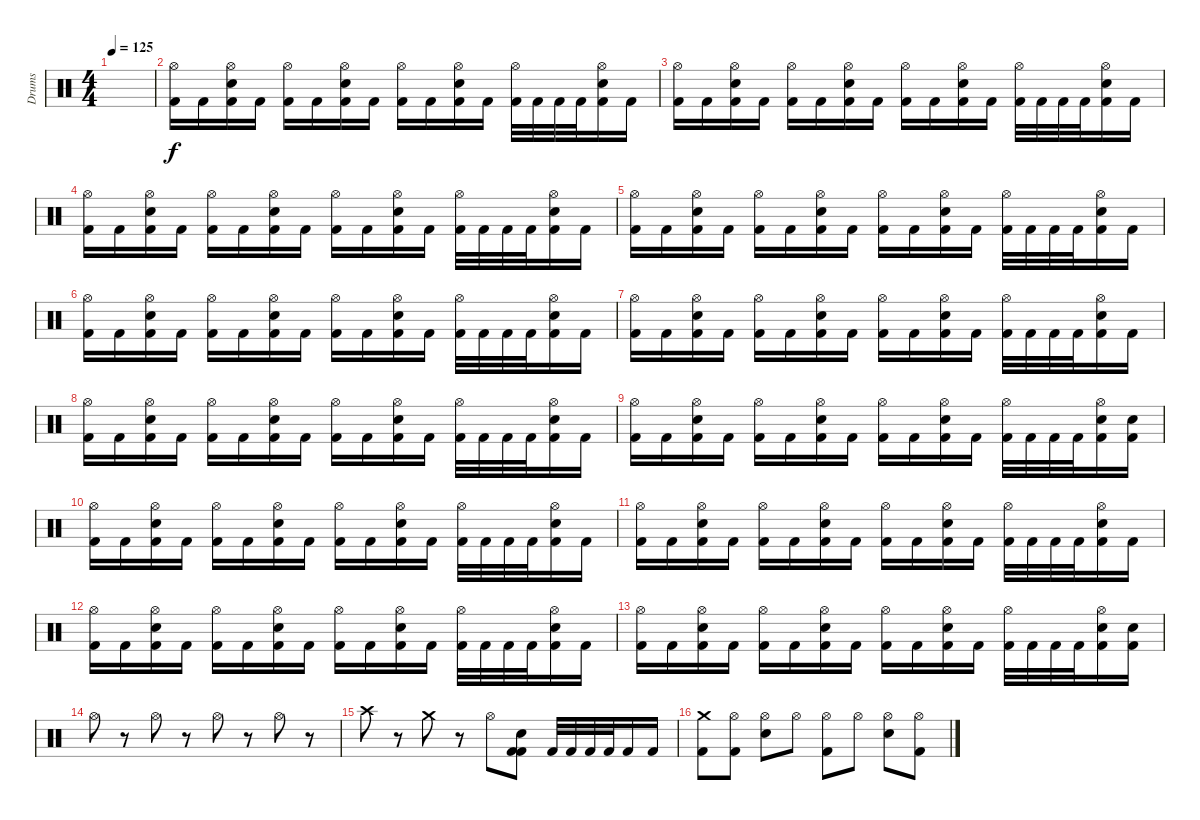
\track ("Drums" "Drums") {instrument percussion}
\staff {score}
\articulation defaults
\ts (4 4)
\tempo 125
\clef neutral
\ks c
|
("Hi-Hat (open)" "Kick (hit) 2").16 "Kick (hit) 2".16 ("Hi-Hat (open)" "Electric Snare (hit)" "Kick (hit) 2").16 "Kick (hit) 2".16 ("Hi-Hat (open)" "Kick (hit) 2").16 "Kick (hit) 2".16 ("Hi-Hat (open)" "Electric Snare (hit)" "Kick (hit) 2").16 "Kick (hit) 2".16 ("Hi-Hat (open)" "Kick (hit) 2").16 "Kick (hit) 2".16 ("Hi-Hat (open)" "Electric Snare (hit)" "Kick (hit) 2").16 "Kick (hit) 2".16 ("Hi-Hat (open)" "Kick (hit) 2").32 "Kick (hit) 2".32 "Kick (hit) 2".32 "Kick (hit) 2".32 ("Hi-Hat (open)" "Electric Snare (hit)" "Kick (hit) 2").16 "Kick (hit) 2".16 |
("Hi-Hat (open)" "Kick (hit) 2").16 "Kick (hit) 2".16 ("Hi-Hat (open)" "Electric Snare (hit)" "Kick (hit) 2").16 "Kick (hit) 2".16 ("Hi-Hat (open)" "Kick (hit) 2").16 "Kick (hit) 2".16 ("Hi-Hat (open)" "Electric Snare (hit)" "Kick (hit) 2").16 "Kick (hit) 2".16 ("Hi-Hat (open)" "Kick (hit) 2").16 "Kick (hit) 2".16 ("Hi-Hat (open)" "Electric Snare (hit)" "Kick (hit) 2").16 "Kick (hit) 2".16 ("Hi-Hat (open)" "Kick (hit) 2").32 "Kick (hit) 2".32 "Kick (hit) 2".32 "Kick (hit) 2".32 ("Hi-Hat (open)" "Electric Snare (hit)" "Kick (hit) 2").16 "Kick (hit) 2".16 |
("Hi-Hat (open)" "Kick (hit) 2").16 "Kick (hit) 2".16 ("Hi-Hat (open)" "Electric Snare (hit)" "Kick (hit) 2").16 "Kick (hit) 2".16 ("Hi-Hat (open)" "Kick (hit) 2").16 "Kick (hit) 2".16 ("Hi-Hat (open)" "Electric Snare (hit)" "Kick (hit) 2").16 "Kick (hit) 2".16 ("Hi-Hat (open)" "Kick (hit) 2").16 "Kick (hit) 2".16 ("Hi-Hat (open)" "Electric Snare (hit)" "Kick (hit) 2").16 "Kick (hit) 2".16 ("Hi-Hat (open)" "Kick (hit) 2").32 "Kick (hit) 2".32 "Kick (hit) 2".32 "Kick (hit) 2".32 ("Hi-Hat (open)" "Electric Snare (hit)" "Kick (hit) 2").16 "Kick (hit) 2".16 |
("Hi-Hat (open)" "Kick (hit) 2").16 "Kick (hit) 2".16 ("Hi-Hat (open)" "Electric Snare (hit)" "Kick (hit) 2").16 "Kick (hit) 2".16 ("Hi-Hat (open)" "Kick (hit) 2").16 "Kick (hit) 2".16 ("Hi-Hat (open)" "Electric Snare (hit)" "Kick (hit) 2").16 "Kick (hit) 2".16 ("Hi-Hat (open)" "Kick (hit) 2").16 "Kick (hit) 2".16 ("Hi-Hat (open)" "Electric Snare (hit)" "Kick (hit) 2").16 "Kick (hit) 2".16 ("Hi-Hat (open)" "Kick (hit) 2").32 "Kick (hit) 2".32 "Kick (hit) 2".32 "Kick (hit) 2".32 ("Hi-Hat (open)" "Electric Snare (hit)" "Kick (hit) 2").16 "Kick (hit) 2".16 |
("Hi-Hat (open)" "Kick (hit) 2").16 "Kick (hit) 2".16 ("Hi-Hat (open)" "Electric Snare (hit)" "Kick (hit) 2").16 "Kick (hit) 2".16 ("Hi-Hat (open)" "Kick (hit) 2").16 "Kick (hit) 2".16 ("Hi-Hat (open)" "Electric Snare (hit)" "Kick (hit) 2").16 "Kick (hit) 2".16 ("Hi-Hat (open)" "Kick (hit) 2").16 "Kick (hit) 2".16 ("Hi-Hat (open)" "Electric Snare (hit)" "Kick (hit) 2").16 "Kick (hit) 2".16 ("Hi-Hat (open)" "Kick (hit) 2").32 "Kick (hit) 2".32 "Kick (hit) 2".32 "Kick (hit) 2".32 ("Hi-Hat (open)" "Electric Snare (hit)" "Kick (hit) 2").16 "Kick (hit) 2".16 |
("Hi-Hat (open)" "Kick (hit) 2").16 "Kick (hit) 2".16 ("Hi-Hat (open)" "Electric Snare (hit)" "Kick (hit) 2").16 "Kick (hit) 2".16 ("Hi-Hat (open)" "Kick (hit) 2").16 "Kick (hit) 2".16 ("Hi-Hat (open)" "Electric Snare (hit)" "Kick (hit) 2").16 "Kick (hit) 2".16 ("Hi-Hat (open)" "Kick (hit) 2").16 "Kick (hit) 2".16 ("Hi-Hat (open)" "Electric Snare (hit)" "Kick (hit) 2").16 "Kick (hit) 2".16 ("Hi-Hat (open)" "Kick (hit) 2").32 "Kick (hit) 2".32 "Kick (hit) 2".32 "Kick (hit) 2".32 ("Hi-Hat (open)" "Electric Snare (hit)" "Kick (hit) 2").16 "Kick (hit) 2".16 |
("Hi-Hat (open)" "Kick (hit) 2").16 "Kick (hit) 2".16 ("Hi-Hat (open)" "Electric Snare (hit)" "Kick (hit) 2").16 "Kick (hit) 2".16 ("Hi-Hat (open)" "Kick (hit) 2").16 "Kick (hit) 2".16 ("Hi-Hat (open)" "Electric Snare (hit)" "Kick (hit) 2").16 "Kick (hit) 2".16 ("Hi-Hat (open)" "Kick (hit) 2").16 "Kick (hit) 2".16 ("Hi-Hat (open)" "Electric Snare (hit)" "Kick (hit) 2").16 "Kick (hit) 2".16 ("Hi-Hat (open)" "Kick (hit) 2").32 "Kick (hit) 2".32 "Kick (hit) 2".32 "Kick (hit) 2".32 ("Hi-Hat (open)" "Electric Snare (hit)" "Kick (hit) 2").16 "Kick (hit) 2".16 |
("Hi-Hat (open)" "Kick (hit) 2").16 "Kick (hit) 2".16 ("Hi-Hat (open)" "Electric Snare (hit)" "Kick (hit) 2").16 "Kick (hit) 2".16 ("Hi-Hat (open)" "Kick (hit) 2").16 "Kick (hit) 2".16 ("Hi-Hat (open)" "Electric Snare (hit)" "Kick (hit) 2").16 "Kick (hit) 2".16 ("Hi-Hat (open)" "Kick (hit) 2").16 "Kick (hit) 2".16 ("Hi-Hat (open)" "Electric Snare (hit)" "Kick (hit) 2").16 "Kick (hit) 2".16 ("Hi-Hat (open)" "Kick (hit) 2").32 "Kick (hit) 2".32 "Kick (hit) 2".32 "Kick (hit) 2".32 ("Hi-Hat (open)" "Electric Snare (hit)" "Kick (hit) 2").16 ("Electric Snare (hit)" "Kick (hit) 2").16 |
("Hi-Hat (open)" "Kick (hit) 2").16 "Kick (hit) 2".16 ("Hi-Hat (open)" "Electric Snare (hit)" "Kick (hit) 2").16 "Kick (hit) 2".16 ("Hi-Hat (open)" "Kick (hit) 2").16 "Kick (hit) 2".16 ("Hi-Hat (open)" "Electric Snare (hit)" "Kick (hit) 2").16 "Kick (hit) 2".16 ("Hi-Hat (open)" "Kick (hit) 2").16 "Kick (hit) 2".16 ("Hi-Hat (open)" "Electric Snare (hit)" "Kick (hit) 2").16 "Kick (hit) 2".16 ("Hi-Hat (open)" "Kick (hit) 2").32 "Kick (hit) 2".32 "Kick (hit) 2".32 "Kick (hit) 2".32 ("Hi-Hat (open)" "Electric Snare (hit)" "Kick (hit) 2").16 "Kick (hit) 2".16 |
("Hi-Hat (open)" "Kick (hit) 2").16 "Kick (hit) 2".16 ("Hi-Hat (open)" "Electric Snare (hit)" "Kick (hit) 2").16 "Kick (hit) 2".16 ("Hi-Hat (open)" "Kick (hit) 2").16 "Kick (hit) 2".16 ("Hi-Hat (open)" "Electric Snare (hit)" "Kick (hit) 2").16 "Kick (hit) 2".16 ("Hi-Hat (open)" "Kick (hit) 2").16 "Kick (hit) 2".16 ("Hi-Hat (open)" "Electric Snare (hit)" "Kick (hit) 2").16 "Kick (hit) 2".16 ("Hi-Hat (open)" "Kick (hit) 2").32 "Kick (hit) 2".32 "Kick (hit) 2".32 "Kick (hit) 2".32 ("Hi-Hat (open)" "Electric Snare (hit)" "Kick (hit) 2").16 "Kick (hit) 2".16 |
("Hi-Hat (open)" "Kick (hit) 2").16 "Kick (hit) 2".16 ("Hi-Hat (open)" "Electric Snare (hit)" "Kick (hit) 2").16 "Kick (hit) 2".16 ("Hi-Hat (open)" "Kick (hit) 2").16 "Kick (hit) 2".16 ("Hi-Hat (open)" "Electric Snare (hit)" "Kick (hit) 2").16 "Kick (hit) 2".16 ("Hi-Hat (open)" "Kick (hit) 2").16 "Kick (hit) 2".16 ("Hi-Hat (open)" "Electric Snare (hit)" "Kick (hit) 2").16 "Kick (hit) 2".16 ("Hi-Hat (open)" "Kick (hit) 2").32 "Kick (hit) 2".32 "Kick (hit) 2".32 "Kick (hit) 2".32 ("Hi-Hat (open)" "Electric Snare (hit)" "Kick (hit) 2").16 "Kick (hit) 2".16 |
("Hi-Hat (open)" "Kick (hit) 2").16 "Kick (hit) 2".16 ("Hi-Hat (open)" "Electric Snare (hit)" "Kick (hit) 2").16 "Kick (hit) 2".16 ("Hi-Hat (open)" "Kick (hit) 2").16 "Kick (hit) 2".16 ("Hi-Hat (open)" "Electric Snare (hit)" "Kick (hit) 2").16 "Kick (hit) 2".16 ("Hi-Hat (open)" "Kick (hit) 2").16 "Kick (hit) 2".16 ("Hi-Hat (open)" "Electric Snare (hit)" "Kick (hit) 2").16 "Kick (hit) 2".16 ("Hi-Hat (open)" "Kick (hit) 2").32 "Kick (hit) 2".32 "Kick (hit) 2".32 "Kick (hit) 2".32 ("Hi-Hat (open)" "Electric Snare (hit)" "Kick (hit) 2").16 ("Electric Snare (hit)" "Kick (hit) 2").16 |
"Hi-Hat (open)".8 r.8 "Hi-Hat (open)".8 r.8 "Hi-Hat (open)".8 r.8 "Hi-Hat (open)".8 r.8 |
"Crash high (hit)".8 r.8 "Crash medium (hit)".8 r.8 "Hi-Hat (open)".8 ("Kick (hit) 2" "Electric Snare (hit)" "Kick (hit) 2").8 "Kick (hit) 2".32 "Kick (hit) 2".32 "Kick (hit) 2".32 "Kick (hit) 2".32 "Kick (hit) 2".16 "Kick (hit) 2".16 |
("Crash medium (hit)" "Kick (hit) 2").8 ("Hi-Hat (open)" "Kick (hit) 2").8 ("Hi-Hat (open)" "Electric Snare (hit)").8 "Hi-Hat (open)".8 ("Hi-Hat (open)" "Kick (hit) 2").8 "Hi-Hat (open)".8 ("Hi-Hat (open)" "Electric Snare (hit)").8 ("Hi-Hat (open)" "Kick (hit) 2").8
